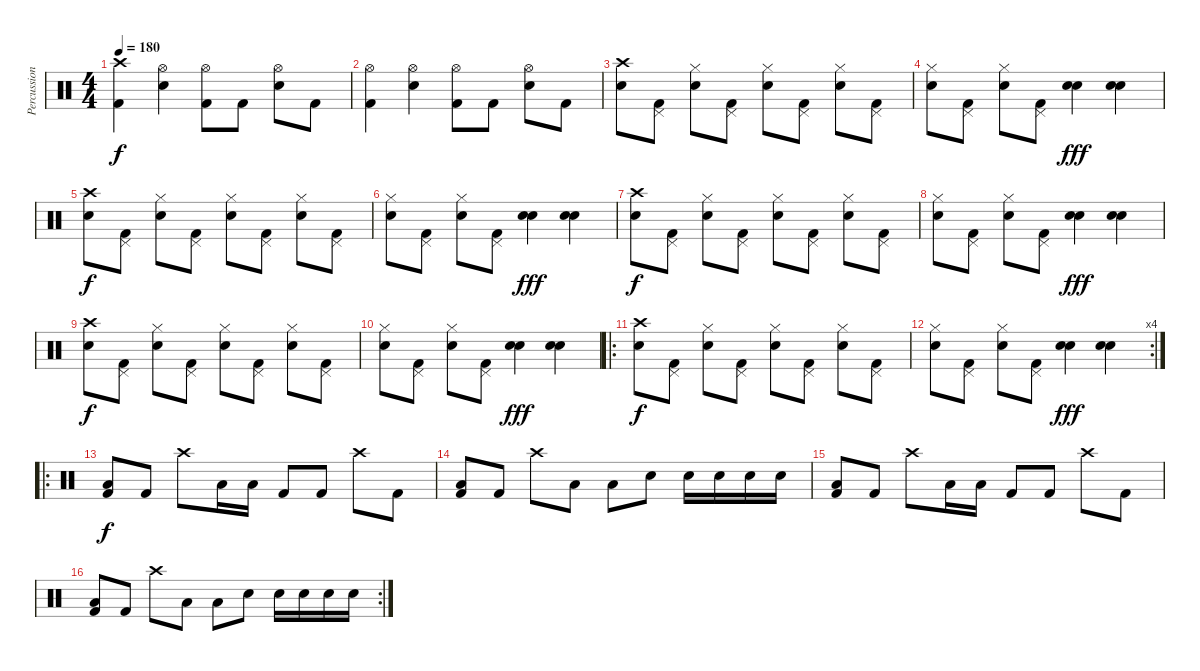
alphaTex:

\track ("Percussion" "Percussion") {instrument percussion}
\staff {score}
\articulation defaults
\ts (4 4)
\tempo 180
\clef neutral
\ks c
("Crash high (hit)" "Kick (hit) 2").4{dy f} ("Hi-Hat (open)" "Electric Snare (hit)").4 ("Hi-Hat (open)" "Kick (hit) 2").8 "Kick (hit) 2".8 ("Hi-Hat (open)" "Electric Snare (hit)").8 "Kick (hit) 2".8 |
("Hi-Hat (open)" "Kick (hit) 2").4 ("Hi-Hat (open)" "Electric Snare (hit)").4 ("Hi-Hat (open)" "Kick (hit) 2").8 "Kick (hit) 2".8 ("Hi-Hat (open)" "Electric Snare (hit)").8 "Kick (hit) 2".8 |
("Crash high (hit)" "Snare (hit) 2").8 ("Pedal Hi-Hat (hit)" "Kick (hit) 2").8 ("Hi-Hat (closed)" "Snare (hit) 2").8 ("Pedal Hi-Hat (hit)" "Kick (hit) 2").8 ("Hi-Hat (closed)" "Snare (hit) 2").8 ("Pedal Hi-Hat (hit)" "Kick (hit) 2").8 ("Hi-Hat (closed)" "Snare (hit) 2").8 ("Pedal Hi-Hat (hit)" "Kick (hit) 2").8 |
("Hi-Hat (closed)" "Snare (hit) 2").8 ("Pedal Hi-Hat (hit)" "Kick (hit) 2").8 ("Hi-Hat (closed)" "Snare (hit) 2").8 ("Pedal Hi-Hat (hit)" "Kick (hit) 2").8 ("Snare (hit) 2" "Electric Snare (hit)").4{dy fff} ("Snare (hit) 2" "Electric Snare (hit)").4 |
("Crash high (hit)" "Snare (hit) 2").8{dy f} ("Pedal Hi-Hat (hit)" "Kick (hit) 2").8 ("Hi-Hat (closed)" "Snare (hit) 2").8 ("Pedal Hi-Hat (hit)" "Kick (hit) 2").8 ("Hi-Hat (closed)" "Snare (hit) 2").8 ("Pedal Hi-Hat (hit)" "Kick (hit) 2").8 ("Hi-Hat (closed)" "Snare (hit) 2").8 ("Pedal Hi-Hat (hit)" "Kick (hit) 2").8 |
("Hi-Hat (closed)" "Snare (hit) 2").8 ("Pedal Hi-Hat (hit)" "Kick (hit) 2").8 ("Hi-Hat (closed)" "Snare (hit) 2").8 ("Pedal Hi-Hat (hit)" "Kick (hit) 2").8 ("Snare (hit) 2" "Electric Snare (hit)").4{dy fff} ("Snare (hit) 2" "Electric Snare (hit)").4 |
("Crash high (hit)" "Snare (hit) 2").8{dy f} ("Pedal Hi-Hat (hit)" "Kick (hit) 2").8 ("Hi-Hat (closed)" "Snare (hit) 2").8 ("Pedal Hi-Hat (hit)" "Kick (hit) 2").8 ("Hi-Hat (closed)" "Snare (hit) 2").8 ("Pedal Hi-Hat (hit)" "Kick (hit) 2").8 ("Hi-Hat (closed)" "Snare (hit) 2").8 ("Pedal Hi-Hat (hit)" "Kick (hit) 2").8 |
("Hi-Hat (closed)" "Snare (hit) 2").8 ("Pedal Hi-Hat (hit)" "Kick (hit) 2").8 ("Hi-Hat (closed)" "Snare (hit) 2").8 ("Pedal Hi-Hat (hit)" "Kick (hit) 2").8 ("Snare (hit) 2" "Electric Snare (hit)").4{dy fff} ("Snare (hit) 2" "Electric Snare (hit)").4 |
("Crash high (hit)" "Snare (hit) 2").8{dy f} ("Pedal Hi-Hat (hit)" "Kick (hit) 2").8 ("Hi-Hat (closed)" "Snare (hit) 2").8 ("Pedal Hi-Hat (hit)" "Kick (hit) 2").8 ("Hi-Hat (closed)" "Snare (hit) 2").8 ("Pedal Hi-Hat (hit)" "Kick (hit) 2").8 ("Hi-Hat (closed)" "Snare (hit) 2").8 ("Pedal Hi-Hat (hit)" "Kick (hit) 2").8 |
("Hi-Hat (closed)" "Snare (hit) 2").8 ("Pedal Hi-Hat (hit)" "Kick (hit) 2").8 ("Hi-Hat (closed)" "Snare (hit) 2").8 ("Pedal Hi-Hat (hit)" "Kick (hit) 2").8 ("Snare (hit) 2" "Electric Snare (hit)").4{dy fff} ("Snare (hit) 2" "Electric Snare (hit)").4 |
\ro
("Crash high (hit)" "Snare (hit) 2").8{dy f} ("Pedal Hi-Hat (hit)" "Kick (hit) 2").8 ("Hi-Hat (closed)" "Snare (hit) 2").8 ("Pedal Hi-Hat (hit)" "Kick (hit) 2").8 ("Hi-Hat (closed)" "Snare (hit) 2").8 ("Pedal Hi-Hat (hit)" "Kick (hit) 2").8 ("Hi-Hat (closed)" "Snare (hit) 2").8 ("Pedal Hi-Hat (hit)" "Kick (hit) 2").8 |
\rc 4
("Hi-Hat (closed)" "Snare (hit) 2").8 ("Pedal Hi-Hat (hit)" "Kick (hit) 2").8 ("Hi-Hat (closed)" "Snare (hit) 2").8 ("Pedal Hi-Hat (hit)" "Kick (hit) 2").8 ("Snare (hit) 2" "Electric Snare (hit)").4{dy fff} ("Snare (hit) 2" "Electric Snare (hit)").4 |
\ro
("Low Tom (hit)" "Kick (hit) 2").8{dy f} "Kick (hit) 2".8 "Crash high (hit)".8 "Low Tom (hit)".16 "Low Floor Tom (hit)".16 "Kick (hit) 2".8 "Kick (hit) 2".8 "Crash high (hit)".8 "Kick (hit) 2".8 |
("Low Tom (hit)" "Kick (hit) 2").8 "Kick (hit) 2".8 "Crash high (hit)".8 "Low Tom (hit)".8 "Low Floor Tom (hit)".8 "Snare (hit) 2".8 "Snare (hit) 2".16 "Snare (hit) 2".16 "Snare (hit) 2".16 "Snare (hit) 2".16 |
("Low Tom (hit)" "Kick (hit) 2").8 "Kick (hit) 2".8 "Crash high (hit)".8 "Low Tom (hit)".16 "Low Floor Tom (hit)".16 "Kick (hit) 2".8 "Kick (hit) 2".8 "Crash high (hit)".8 "Kick (hit) 2".8 |
\rc 2
("Low Tom (hit)" "Kick (hit) 2").8 "Kick (hit) 2".8 "Crash high (hit)".8 "Low Tom (hit)".8 "Low Floor Tom (hit)".8 "Snare (hit) 2".8 "Snare (hit) 2".16 "Snare (hit) 2".16 "Snare (hit) 2".16 "Snare (hit) 2".16
